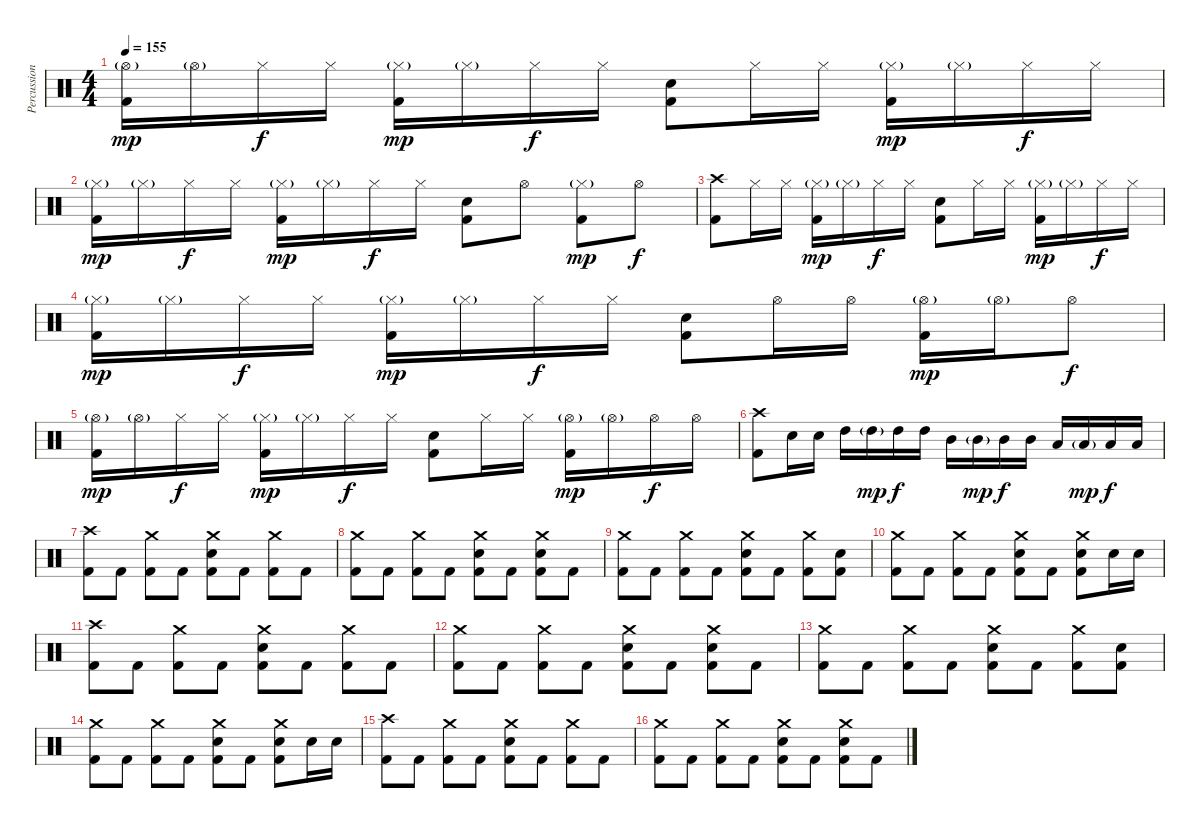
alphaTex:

\track ("Percussion" "Percussion") {instrument percussion}
\staff {score}
\articulation defaults
\ts (4 4)
\tempo 155
\clef neutral
\ks c
("Hi-Hat (open)"{g} "Kick (hit) 2").16{dy mp} "Hi-Hat (open)"{g}.16 "Hi-Hat (closed)".16{dy f} "Hi-Hat (closed)".16 ("Hi-Hat (closed)"{g} "Kick (hit) 2").16{dy mp} "Hi-Hat (closed)"{g}.16 "Hi-Hat (closed)".16{dy f} "Hi-Hat (closed)".16 ("Electric Snare (hit)" "Kick (hit) 2").8 "Hi-Hat (closed)".16 "Hi-Hat (closed)".16 ("Hi-Hat (closed)"{g} "Kick (hit) 2").16{dy mp} "Hi-Hat (closed)"{g}.16 "Hi-Hat (closed)".16{dy f} "Hi-Hat (closed)".16 |
("Hi-Hat (closed)"{g} "Kick (hit) 2").16{dy mp} "Hi-Hat (closed)"{g}.16 "Hi-Hat (closed)".16{dy f} "Hi-Hat (closed)".16 ("Hi-Hat (closed)"{g} "Kick (hit) 2").16{dy mp} "Hi-Hat (closed)"{g}.16 "Hi-Hat (closed)".16{dy f} "Hi-Hat (closed)".16 ("Electric Snare (hit)" "Kick (hit) 2").8 "Hi-Hat (open)".8 ("Hi-Hat (closed)"{g} "Kick (hit) 2").8{dy mp} "Hi-Hat (open)".8{dy f} |
("Crash high (hit)" "Kick (hit) 2").8 "Hi-Hat (closed)".16 "Hi-Hat (closed)".16 ("Hi-Hat (closed)"{g} "Kick (hit) 2").16{dy mp} "Hi-Hat (closed)"{g}.16 "Hi-Hat (closed)".16{dy f} "Hi-Hat (closed)".16 ("Electric Snare (hit)" "Kick (hit) 2").8 "Hi-Hat (closed)".16 "Hi-Hat (closed)".16 ("Hi-Hat (closed)"{g} "Kick (hit) 2").16{dy mp} "Hi-Hat (closed)"{g}.16 "Hi-Hat (closed)".16{dy f} "Hi-Hat (closed)".16 |
("Hi-Hat (closed)"{g} "Kick (hit) 2").16{dy mp} "Hi-Hat (closed)"{g}.16 "Hi-Hat (closed)".16{dy f} "Hi-Hat (closed)".16 ("Hi-Hat (closed)"{g} "Kick (hit) 2").16{dy mp} "Hi-Hat (closed)"{g}.16 "Hi-Hat (closed)".16{dy f} "Hi-Hat (closed)".16 ("Electric Snare (hit)" "Kick (hit) 2").8 "Hi-Hat (open)".16 "Hi-Hat (open)".16 ("Hi-Hat (open)"{g} "Kick (hit) 2").16{dy mp} "Hi-Hat (open)"{g}.16 "Hi-Hat (open)".8{dy f} |
("Hi-Hat (open)"{g} "Kick (hit) 2").16{dy mp} "Hi-Hat (open)"{g}.16 "Hi-Hat (closed)".16{dy f} "Hi-Hat (closed)".16 ("Hi-Hat (closed)"{g} "Kick (hit) 2").16{dy mp} "Hi-Hat (closed)"{g}.16 "Hi-Hat (closed)".16{dy f} "Hi-Hat (closed)".16 ("Electric Snare (hit)" "Kick (hit) 2").8 "Hi-Hat (closed)".16 "Hi-Hat (closed)".16 ("Hi-Hat (open)"{g} "Kick (hit) 2").16{dy mp} "Hi-Hat (open)"{g}.16 "Hi-Hat (open)".16{dy f} "Hi-Hat (open)".16 |
("Crash high (hit)" "Kick (hit) 2").8 "Electric Snare (hit)".16 "Electric Snare (hit)".16 "High Tom (hit)".16 "High Tom (hit)"{g}.16{dy mp} "High Tom (hit)".16{dy f} "High Tom (hit)".16 "Mid Tom (hit)".16 "Mid Tom (hit)"{g}.16{dy mp} "Mid Tom (hit)".16{dy f} "Mid Tom (hit)".16 "Low Tom (hit)".16 "Low Tom (hit)"{g}.16{dy mp} "Low Tom (hit)".16{dy f} "Low Tom (hit)".16 |
("Crash high (hit)" "Kick (hit) 2").8 "Kick (hit) 2".8 ("Crash medium (hit)" "Kick (hit) 2").8 "Kick (hit) 2".8 ("Crash medium (hit)" "Electric Snare (hit)" "Kick (hit) 2").8 "Kick (hit) 2".8 ("Crash medium (hit)" "Kick (hit) 2").8 "Kick (hit) 2".8 |
("Crash medium (hit)" "Kick (hit) 2").8 "Kick (hit) 2".8 ("Crash medium (hit)" "Kick (hit) 2").8 "Kick (hit) 2".8 ("Crash medium (hit)" "Electric Snare (hit)" "Kick (hit) 2").8 "Kick (hit) 2".8 ("Crash medium (hit)" "Electric Snare (hit)" "Kick (hit) 2").8 "Kick (hit) 2".8 |
("Crash medium (hit)" "Kick (hit) 2").8 "Kick (hit) 2".8 ("Crash medium (hit)" "Kick (hit) 2").8 "Kick (hit) 2".8 ("Crash medium (hit)" "Electric Snare (hit)" "Kick (hit) 2").8 "Kick (hit) 2".8 ("Crash medium (hit)" "Kick (hit) 2").8 ("Electric Snare (hit)" "Kick (hit) 2").8 |
("Crash medium (hit)" "Kick (hit) 2").8 "Kick (hit) 2".8 ("Crash medium (hit)" "Kick (hit) 2").8 "Kick (hit) 2".8 ("Crash medium (hit)" "Electric Snare (hit)" "Kick (hit) 2").8 "Kick (hit) 2".8 ("Crash medium (hit)" "Electric Snare (hit)" "Kick (hit) 2").8 "Electric Snare (hit)".16 "Electric Snare (hit)".16 |
("Crash high (hit)" "Kick (hit) 2").8 "Kick (hit) 2".8 ("Crash medium (hit)" "Kick (hit) 2").8 "Kick (hit) 2".8 ("Crash medium (hit)" "Electric Snare (hit)" "Kick (hit) 2").8 "Kick (hit) 2".8 ("Crash medium (hit)" "Kick (hit) 2").8 "Kick (hit) 2".8 |
("Crash medium (hit)" "Kick (hit) 2").8 "Kick (hit) 2".8 ("Crash medium (hit)" "Kick (hit) 2").8 "Kick (hit) 2".8 ("Crash medium (hit)" "Electric Snare (hit)" "Kick (hit) 2").8 "Kick (hit) 2".8 ("Crash medium (hit)" "Electric Snare (hit)" "Kick (hit) 2").8 "Kick (hit) 2".8 |
("Crash medium (hit)" "Kick (hit) 2").8 "Kick (hit) 2".8 ("Crash medium (hit)" "Kick (hit) 2").8 "Kick (hit) 2".8 ("Crash medium (hit)" "Electric Snare (hit)" "Kick (hit) 2").8 "Kick (hit) 2".8 ("Crash medium (hit)" "Kick (hit) 2").8 ("Electric Snare (hit)" "Kick (hit) 2").8 |
("Crash medium (hit)" "Kick (hit) 2").8 "Kick (hit) 2".8 ("Crash medium (hit)" "Kick (hit) 2").8 "Kick (hit) 2".8 ("Crash medium (hit)" "Electric Snare (hit)" "Kick (hit) 2").8 "Kick (hit) 2".8 ("Crash medium (hit)" "Electric Snare (hit)" "Kick (hit) 2").8 "Electric Snare (hit)".16 "Electric Snare (hit)".16 |
("Crash high (hit)" "Kick (hit) 2").8 "Kick (hit) 2".8 ("Crash medium (hit)" "Kick (hit) 2").8 "Kick (hit) 2".8 ("Crash medium (hit)" "Electric Snare (hit)" "Kick (hit) 2").8 "Kick (hit) 2".8 ("Crash medium (hit)" "Kick (hit) 2").8 "Kick (hit) 2".8 |
("Crash medium (hit)" "Kick (hit) 2").8 "Kick (hit) 2".8 ("Crash medium (hit)" "Kick (hit) 2").8 "Kick (hit) 2".8 ("Crash medium (hit)" "Electric Snare (hit)" "Kick (hit) 2").8 "Kick (hit) 2".8 ("Crash medium (hit)" "Electric Snare (hit)" "Kick (hit) 2").8 "Kick (hit) 2".8
